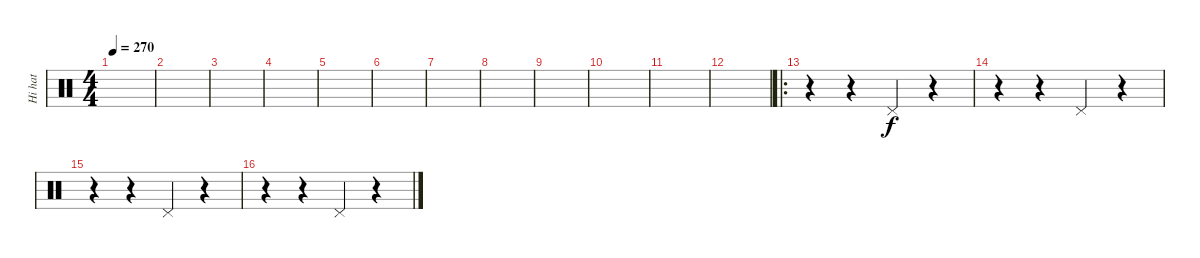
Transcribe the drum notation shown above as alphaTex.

\track ("Hi hat" "Hi hat") {instrument percussion}
\staff {score}
\articulation defaults
\ts (4 4)
\tempo 270
\clef neutral
\ks c
|
|
|
|
|
|
|
|
|
|
|
|
\ro
r.4 r.4 "Pedal Hi-Hat (hit)".4 r.4 |
r.4 r.4 "Pedal Hi-Hat (hit)".4 r.4 |
r.4 r.4 "Pedal Hi-Hat (hit)".4 r.4 |
r.4 r.4 "Pedal Hi-Hat (hit)".4 r.4
